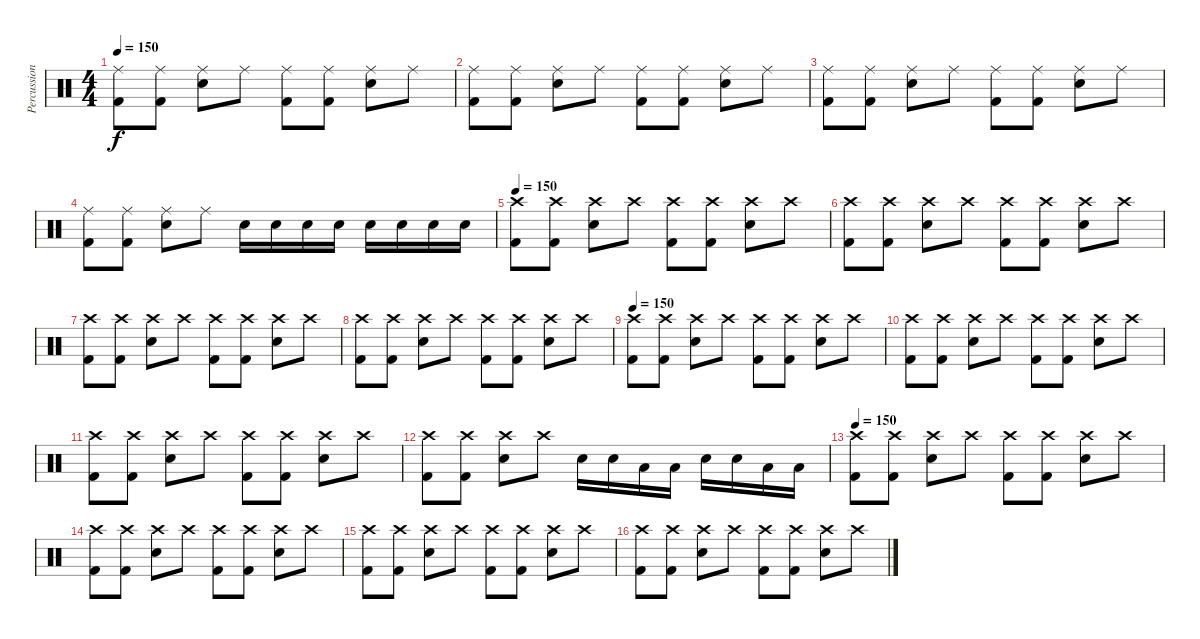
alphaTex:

\track ("Percussion" "Percussion") {instrument percussion}
\staff {score}
\articulation defaults
\ts (4 4)
\tempo 150
\clef neutral
\ks c
("Ride (middle)" "Kick (hit) 2").8{dy f} ("Ride (middle)" "Kick (hit) 2").8 ("Ride (middle)" "Electric Snare (hit)").8 "Ride (middle)".8 ("Ride (middle)" "Kick (hit) 2").8 ("Ride (middle)" "Kick (hit) 2").8 ("Ride (middle)" "Electric Snare (hit)").8 "Ride (middle)".8 |
("Ride (middle)" "Kick (hit) 2").8 ("Ride (middle)" "Kick (hit) 2").8 ("Ride (middle)" "Electric Snare (hit)").8 "Ride (middle)".8 ("Ride (middle)" "Kick (hit) 2").8 ("Ride (middle)" "Kick (hit) 2").8 ("Ride (middle)" "Electric Snare (hit)").8 "Ride (middle)".8 |
("Ride (middle)" "Kick (hit) 2").8 ("Ride (middle)" "Kick (hit) 2").8 ("Ride (middle)" "Electric Snare (hit)").8 "Ride (middle)".8 ("Ride (middle)" "Kick (hit) 2").8 ("Ride (middle)" "Kick (hit) 2").8 ("Ride (middle)" "Electric Snare (hit)").8 "Ride (middle)".8 |
("Ride (middle)" "Kick (hit) 2").8 ("Ride (middle)" "Kick (hit) 2").8 ("Ride (middle)" "Electric Snare (hit)").8 "Ride (middle)".8 "Electric Snare (hit)".16 "Electric Snare (hit)".16 "Electric Snare (hit)".16 "Electric Snare (hit)".16 "Electric Snare (hit)".16 "Electric Snare (hit)".16 "Electric Snare (hit)".16 "Electric Snare (hit)".16 |
\tempo 150
("Crash high (hit)" "Kick (hit) 2").8 ("Crash high (hit)" "Kick (hit) 2").8 ("Crash high (hit)" "Electric Snare (hit)").8 "Crash high (hit)".8 ("Crash high (hit)" "Kick (hit) 2").8 ("Crash high (hit)" "Kick (hit) 2").8 ("Crash high (hit)" "Electric Snare (hit)").8 "Crash high (hit)".8 |
("Crash high (hit)" "Kick (hit) 2").8 ("Crash high (hit)" "Kick (hit) 2").8 ("Crash high (hit)" "Electric Snare (hit)").8 "Crash high (hit)".8 ("Crash high (hit)" "Kick (hit) 2").8 ("Crash high (hit)" "Kick (hit) 2").8 ("Crash high (hit)" "Electric Snare (hit)").8 "Crash high (hit)".8 |
("Crash high (hit)" "Kick (hit) 2").8 ("Crash high (hit)" "Kick (hit) 2").8 ("Crash high (hit)" "Electric Snare (hit)").8 "Crash high (hit)".8 ("Crash high (hit)" "Kick (hit) 2").8 ("Crash high (hit)" "Kick (hit) 2").8 ("Crash high (hit)" "Electric Snare (hit)").8 "Crash high (hit)".8 |
("Crash high (hit)" "Kick (hit) 2").8 ("Crash high (hit)" "Kick (hit) 2").8 ("Crash high (hit)" "Electric Snare (hit)").8 "Crash high (hit)".8 ("Crash high (hit)" "Kick (hit) 2").8 ("Crash high (hit)" "Kick (hit) 2").8 ("Crash high (hit)" "Electric Snare (hit)").8 "Crash high (hit)".8 |
\tempo 150
("Crash high (hit)" "Kick (hit) 2").8 ("Crash high (hit)" "Kick (hit) 2").8 ("Crash high (hit)" "Electric Snare (hit)").8 "Crash high (hit)".8 ("Crash high (hit)" "Kick (hit) 2").8 ("Crash high (hit)" "Kick (hit) 2").8 ("Crash high (hit)" "Electric Snare (hit)").8 "Crash high (hit)".8 |
("Crash high (hit)" "Kick (hit) 2").8 ("Crash high (hit)" "Kick (hit) 2").8 ("Crash high (hit)" "Electric Snare (hit)").8 "Crash high (hit)".8 ("Crash high (hit)" "Kick (hit) 2").8 ("Crash high (hit)" "Kick (hit) 2").8 ("Crash high (hit)" "Electric Snare (hit)").8 "Crash high (hit)".8 |
("Crash high (hit)" "Kick (hit) 2").8 ("Crash high (hit)" "Kick (hit) 2").8 ("Crash high (hit)" "Electric Snare (hit)").8 "Crash high (hit)".8 ("Crash high (hit)" "Kick (hit) 2").8 ("Crash high (hit)" "Kick (hit) 2").8 ("Crash high (hit)" "Electric Snare (hit)").8 "Crash high (hit)".8 |
("Crash high (hit)" "Kick (hit) 2").8 ("Crash high (hit)" "Kick (hit) 2").8 ("Crash high (hit)" "Electric Snare (hit)").8 "Crash high (hit)".8 "Electric Snare (hit)".16 "Electric Snare (hit)".16 "Low Tom (hit)".16 "Low Tom (hit)".16 "Electric Snare (hit)".16 "Electric Snare (hit)".16 "Low Tom (hit)".16 "Low Tom (hit)".16 |
\tempo 150
("Crash high (hit)" "Kick (hit) 2").8 ("Crash high (hit)" "Kick (hit) 2").8 ("Crash high (hit)" "Electric Snare (hit)").8 "Crash high (hit)".8 ("Crash high (hit)" "Kick (hit) 2").8 ("Crash high (hit)" "Kick (hit) 2").8 ("Crash high (hit)" "Electric Snare (hit)").8 "Crash high (hit)".8 |
("Crash high (hit)" "Kick (hit) 2").8 ("Crash high (hit)" "Kick (hit) 2").8 ("Crash high (hit)" "Electric Snare (hit)").8 "Crash high (hit)".8 ("Crash high (hit)" "Kick (hit) 2").8 ("Crash high (hit)" "Kick (hit) 2").8 ("Crash high (hit)" "Electric Snare (hit)").8 "Crash high (hit)".8 |
("Crash high (hit)" "Kick (hit) 2").8 ("Crash high (hit)" "Kick (hit) 2").8 ("Crash high (hit)" "Electric Snare (hit)").8 "Crash high (hit)".8 ("Crash high (hit)" "Kick (hit) 2").8 ("Crash high (hit)" "Kick (hit) 2").8 ("Crash high (hit)" "Electric Snare (hit)").8 "Crash high (hit)".8 |
("Crash high (hit)" "Kick (hit) 2").8 ("Crash high (hit)" "Kick (hit) 2").8 ("Crash high (hit)" "Electric Snare (hit)").8 "Crash high (hit)".8 ("Crash high (hit)" "Kick (hit) 2").8 ("Crash high (hit)" "Kick (hit) 2").8 ("Crash high (hit)" "Electric Snare (hit)").8 "Crash high (hit)".8
